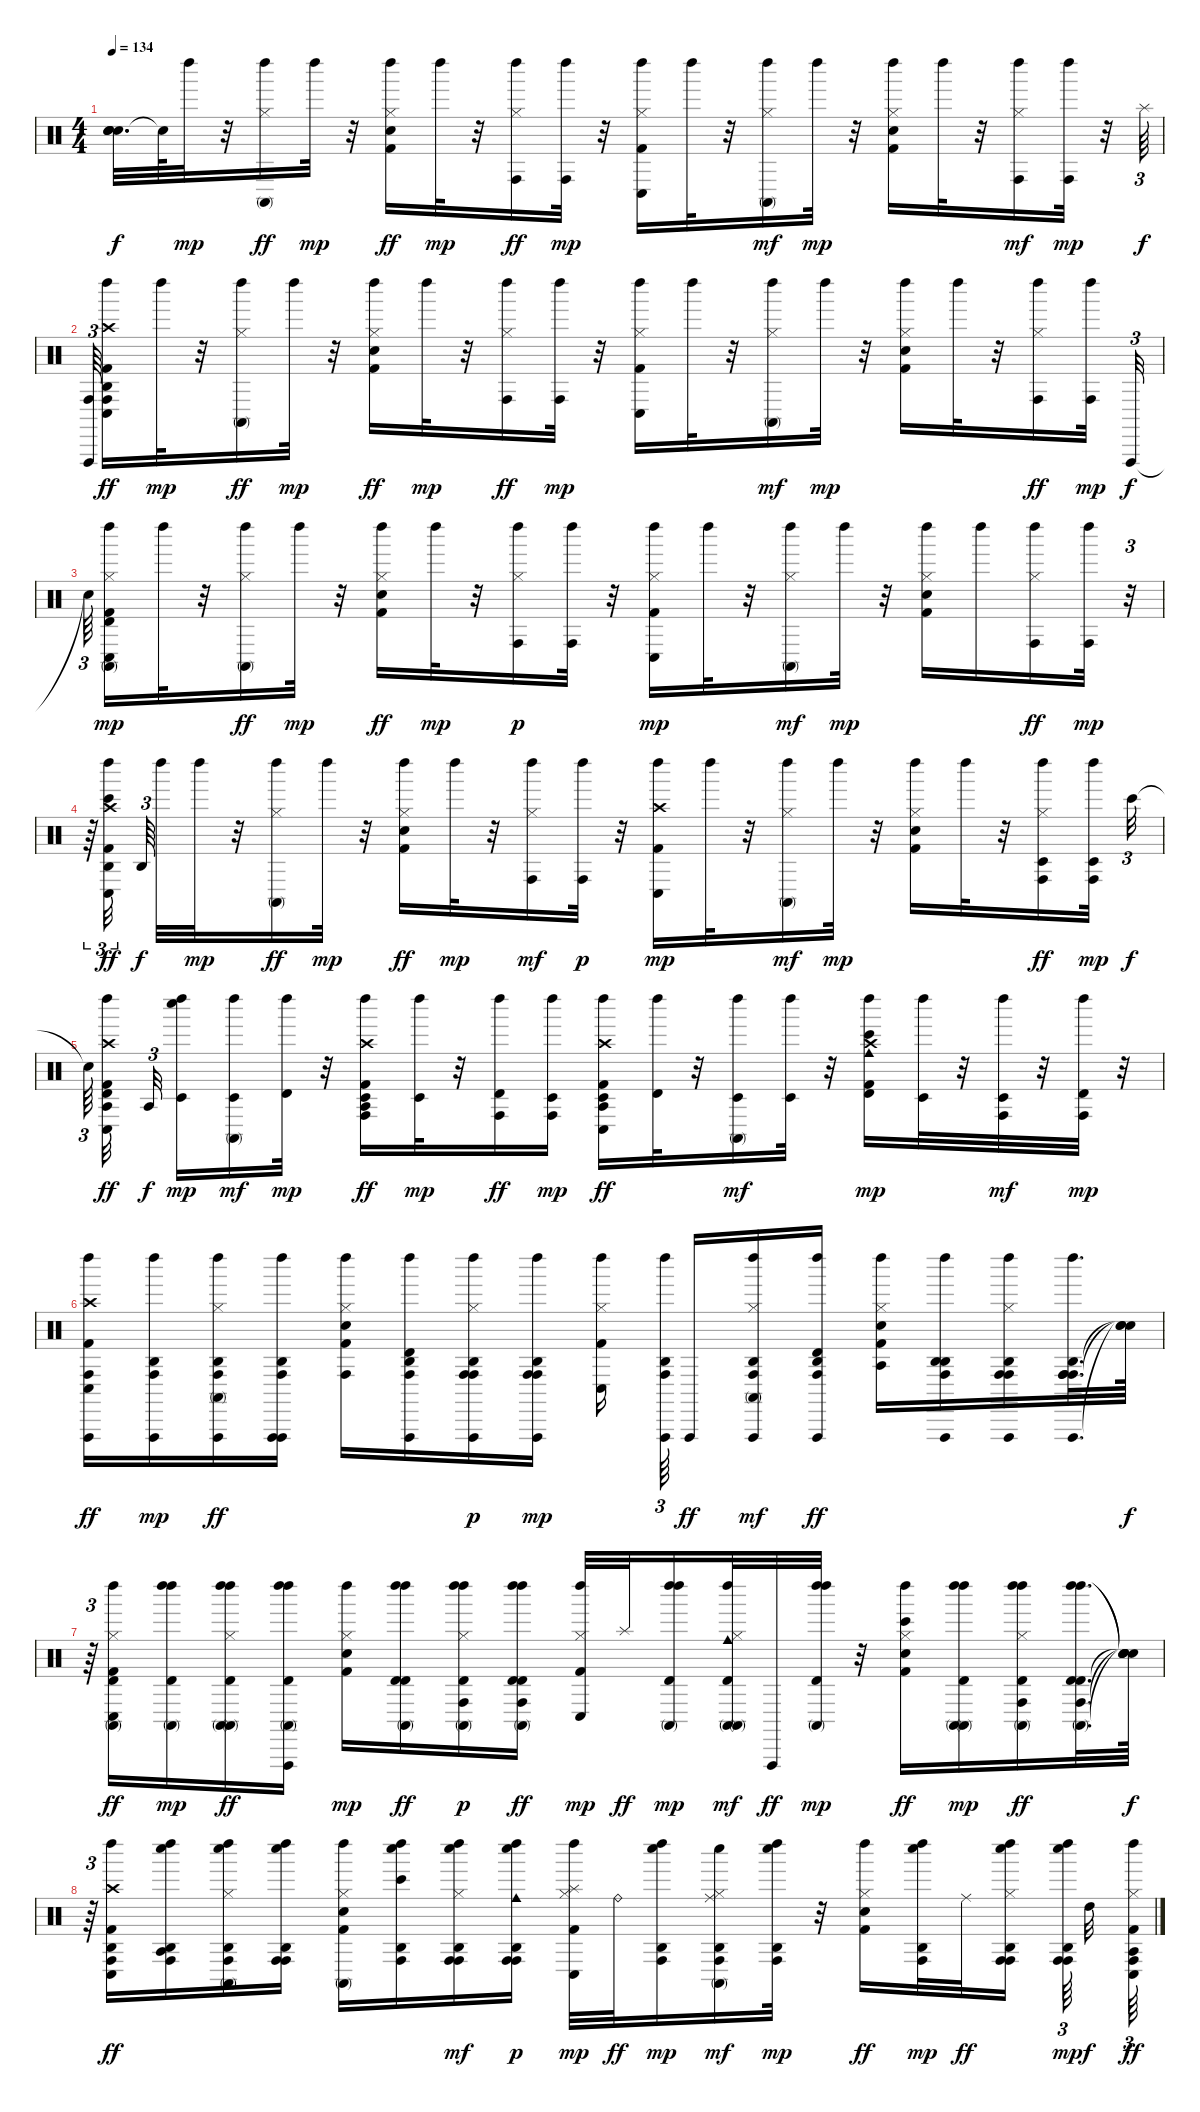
\track "" {instrument percussion}
\staff {score}
\articulation defaults
\ts (4 4)
\tempo 134
\clef neutral
\ks c
("Snare (hit)"{t} "Snare (hit)"{t} "Snare (hit)"{t} "Snare (hit)"{t}).32{d dy f} "Snare (hit)"{t}.64 "Left Maraca (hit)".32{dy mp} r.32 ("Left Maraca (hit)" "Conga high (mute)" "Hi-Hat (closed)").16{dy ff} "Left Maraca (hit)".32{dy mp} r.32 ("Left Maraca (hit)" "Hi-Hat (closed)" "Snare (hit) 2" "Kick (hit) 2").16{dy ff} "Left Maraca (hit)".32{dy mp} r.32 ("Left Maraca (hit)" "Conga high (hit)" "Hi-Hat (closed)").16{dy ff} ("Left Maraca (hit)" "Conga high (hit)").32{dy mp} r.32 ("Kick (hit) 2" "Hi-Hat (closed)" "Conga low (hit)" "Left Maraca (hit)").16 "Left Maraca (hit)".32 r.32 ("Hi-Hat (closed)" "Conga high (mute)" "Left Maraca (hit)").16{dy mf} "Left Maraca (hit)".32{dy mp} r.32 ("Kick (hit) 2" "Snare (hit) 2" "Hi-Hat (closed)" "Left Maraca (hit)").16 "Left Maraca (hit)".32 r.32 ("Hi-Hat (closed)" "Conga high (hit)" "Left Maraca (hit)").16{dy mf} ("Conga high (hit)" "Left Maraca (hit)").32{dy mp} r.32 "Splash (hit)".64{tu (3 2) dy f} |
("Conga high (hit)" "Vibraslap (hit)").64{tu (3 2) beam splitsecondary} ("Agogo high (hit)" "Left Maraca (hit)" "Conga low (hit)" "Crash high (hit)" "Kick (hit) 2" "Conga high (hit)").16{dy ff} "Left Maraca (hit)".32{dy mp} r.32 ("Left Maraca (hit)" "Conga high (mute)" "Hi-Hat (closed)").16{dy ff} "Left Maraca (hit)".32{dy mp} r.32 ("Left Maraca (hit)" "Hi-Hat (closed)" "Snare (hit) 2" "Kick (hit) 2").16{dy ff} "Left Maraca (hit)".32{dy mp} r.32 ("Left Maraca (hit)" "Conga high (hit)" "Hi-Hat (closed)").16{dy ff} ("Left Maraca (hit)" "Conga high (hit)").32{dy mp} r.32 ("Kick (hit) 2" "Hi-Hat (closed)" "Conga low (hit)" "Left Maraca (hit)").16 "Left Maraca (hit)".32 r.32 ("Hi-Hat (closed)" "Conga high (mute)" "Left Maraca (hit)").16{dy mf} "Left Maraca (hit)".32{dy mp} r.32 ("Kick (hit) 2" "Snare (hit) 2" "Hi-Hat (closed)" "Left Maraca (hit)").16 "Left Maraca (hit)".32 r.32 ("Left Maraca (hit)" "Conga high (hit)" "Hi-Hat (closed)").16{dy ff} ("Conga high (hit)" "Left Maraca (hit)").32{dy mp} "Vibraslap (hit)".32{tu (3 2) dy f} |
"Snare (hit)"{t}.64{tu (3 2) beam splitsecondary} ("Conga high (mute)" "Left Maraca (hit)" "Conga low (hit)" "Hi-Hat (closed)" "Kick (hit) 2" "Timbale high (hit)").16{dy mp} "Left Maraca (hit)".32 r.32 ("Left Maraca (hit)" "Conga high (mute)" "Hi-Hat (closed)").16{dy ff} "Left Maraca (hit)".32{dy mp} r.32 ("Left Maraca (hit)" "Hi-Hat (closed)" "Snare (hit) 2" "Kick (hit) 2").16{dy ff} "Left Maraca (hit)".32{dy mp} r.32 ("Hi-Hat (closed)" "Conga high (hit)" "Left Maraca (hit)").16{dy p} ("Left Maraca (hit)" "Conga high (hit)").32 r.32 ("Kick (hit) 2" "Hi-Hat (closed)" "Conga low (hit)" "Left Maraca (hit)").16{dy mp} "Left Maraca (hit)".32 r.32 ("Hi-Hat (closed)" "Conga high (mute)" "Left Maraca (hit)").16{dy mf} "Left Maraca (hit)".32{dy mp} r.32 ("Kick (hit) 2" "Snare (hit) 2" "Hi-Hat (closed)" "Left Maraca (hit)").16 "Left Maraca (hit)".16 ("Left Maraca (hit)" "Conga high (hit)" "Hi-Hat (closed)").16{dy ff} ("Conga high (hit)" "Left Maraca (hit)").32{dy mp} r.32{tu (3 2)} |
r.64{tu (3 2)} ("Bongo High (hit)" "Left Maraca (hit)" "Conga low (hit)" "Crash high (hit)" "Kick (hit) 2" "Agogo high (hit)").32{tu (3 2) dy ff beam splitsecondary} "Agogo high (hit)".64{tu (3 2) dy f beam splitsecondary} "Left Maraca (hit)".32 "Left Maraca (hit)".32{dy mp} r.32 ("Left Maraca (hit)" "Conga high (mute)" "Hi-Hat (closed)").16{dy ff} "Left Maraca (hit)".32{dy mp} r.32 ("Left Maraca (hit)" "Hi-Hat (closed)" "Snare (hit) 2" "Kick (hit) 2").16{dy ff} "Left Maraca (hit)".32{dy mp} r.32 ("Hi-Hat (closed)" "Conga high (hit)" "Left Maraca (hit)").16{dy mf} ("Left Maraca (hit)" "Conga high (hit)").32{dy p} r.32 ("Kick (hit) 2" "Crash high (hit)" "Conga low (hit)" "Left Maraca (hit)").16{dy mp} "Left Maraca (hit)".32 r.32 ("Hi-Hat (closed)" "Conga high (mute)" "Left Maraca (hit)").16{dy mf} "Left Maraca (hit)".32{dy mp} r.32 ("Kick (hit) 2" "Snare (hit) 2" "Hi-Hat (closed)" "Left Maraca (hit)").16 "Left Maraca (hit)".32 r.32 ("Left Maraca (hit)" "Timbale low (hit)" "Conga high (hit)" "Hi-Hat (closed)").16{dy ff} ("Conga high (hit)" "Timbale low (hit)" "Left Maraca (hit)").32{dy mp} "Bongo High (hit)".32{tu (3 2) dy f} |
"Snare (hit)"{t}.64{tu (3 2) beam splitsecondary} ("Left Maraca (hit)" "Timbale high (hit)" "Conga low (hit)" "Crash high (hit)" "Kick (hit) 2" "Agogo tow (hit)").32{dy ff beam splitsecondary} "Agogo tow (hit)".32{tu (3 2) dy f beam splitsecondary} ("Whistle low (hit)" "Timbale low (hit)" "Left Maraca (hit)").16{dy mp} ("Left Maraca (hit)" "Timbale low (hit)" "Conga high (mute)").16{dy mf} ("Timbale high (hit)" "Left Maraca (hit)").32{dy mp} r.32 ("Left Maraca (hit)" "Timbale low (hit)" "Crash high (hit)" "Kick (hit) 2" "Agogo tow (hit)" "Conga high (hit)").16{dy ff} ("Left Maraca (hit)" "Timbale low (hit)").32{dy mp} r.32 ("Conga high (hit)" "Timbale high (hit)" "Left Maraca (hit)").16{dy ff} ("Left Maraca (hit)" "Timbale low (hit)" "Conga high (hit)").16{dy mp} ("Kick (hit) 2" "Crash high (hit)" "Conga low (hit)" "Timbale low (hit)" "Left Maraca (hit)" "Agogo tow (hit)").16{dy ff} ("Left Maraca (hit)" "Timbale high (hit)").32 r.32 ("Conga high (mute)" "Timbale low (hit)" "Left Maraca (hit)").16{dy mf} ("Left Maraca (hit)" "Timbale low (hit)").32 r.32 ("Kick (hit) 2" "Crash high (hit)" "Timbale high (hit)" "Left Maraca (hit)" "Cowbell medium (hit)" "Bongo High (hit)").16{dy mp} ("Timbale low (hit)" "Left Maraca (hit)").32 r.32 ("Left Maraca (hit)" "Timbale low (hit)" "Conga high (hit)").32{dy mf} r.32 ("Conga high (hit)" "Timbale high (hit)" "Left Maraca (hit)").32{dy mp} r.32 |
("Left Maraca (hit)" "Conga low (hit)" "Crash high (hit)" "Kick (hit) 2" "Conga high (hit)" "Vibraslap (hit)").16{dy ff} ("Agogo high (hit)" "Conga high (hit)" "Vibraslap (hit)" "Left Maraca (hit)").16{dy mp} ("Agogo high (hit)" "Conga high (hit)" "Vibraslap (hit)" "Left Maraca (hit)" "Conga high (mute)" "Hi-Hat (closed)").16{dy ff} ("Agogo high (hit)" "Conga high (hit)" "Vibraslap (hit)" "Left Maraca (hit)" "Vibraslap (hit)").16 ("Kick (hit) 2" "Snare (hit) 2" "Hi-Hat (closed)" "Left Maraca (hit)" "Conga high (hit)").16 ("Agogo high (hit)" "Conga high (hit)" "Vibraslap (hit)" "Left Maraca (hit)" "Timbale high (hit)").16 ("Agogo high (hit)" "Conga high (hit)" "Vibraslap (hit)" "Hi-Hat (closed)" "Conga high (hit)" "Left Maraca (hit)").16{dy p} ("Agogo high (hit)" "Conga high (hit)" "Vibraslap (hit)" "Left Maraca (hit)" "Conga high (hit)").16{dy mp} ("Kick (hit) 2" "Hi-Hat (closed)" "Conga low (hit)" "Left Maraca (hit)").16{beam splitsecondary} ("Agogo high (hit)" "Conga high (hit)" "Vibraslap (hit)" "Left Maraca (hit)").64{tu (3 2) beam splitsecondary} "Vibraslap (hit)".16{dy ff} ("Agogo high (hit)" "Conga high (hit)" "Vibraslap (hit)" "Hi-Hat (closed)" "Conga high (mute)" "Left Maraca (hit)").16{dy mf} ("Agogo high (hit)" "Conga high (hit)" "Vibraslap (hit)" "Left Maraca (hit)" "Timbale high (hit)").16{dy ff} ("Left Maraca (hit)" "Hi-Hat (closed)" "Snare (hit) 2" "Kick (hit) 2" "Agogo tow (hit)").16 ("Agogo high (hit)" "Conga high (hit)" "Vibraslap (hit)" "Left Maraca (hit)" "Agogo high (hit)").16 ("Agogo high (hit)" "Conga high (hit)" "Vibraslap (hit)" "Left Maraca (hit)" "Conga high (hit)" "Hi-Hat (closed)").16 ("Agogo high (hit)" "Conga high (hit)" "Vibraslap (hit)" "Conga high (hit)" "Left Maraca (hit)" "Conga high (hit)").32{d} ("Snare (hit)"{t} "Snare (hit)"{t} "Snare (hit)"{t}).64{dy f} |
r.64{tu (3 2)} ("Left Maraca (hit)" "Conga low (hit)" "Hi-Hat (closed)" "Kick (hit) 2" "Timbale high (hit)" "Conga high (mute)").16{dy ff} ("Left Maraca (hit)" "Timbale high (hit)" "Conga high (mute)" "Left Maraca (hit)").16{dy mp} ("Left Maraca (hit)" "Timbale high (hit)" "Conga high (mute)" "Left Maraca (hit)" "Conga high (mute)" "Hi-Hat (closed)").16{dy ff} ("Conga high (mute)" "Timbale high (hit)" "Left Maraca (hit)" "Left Maraca (hit)" "Vibraslap (hit)").16 ("Kick (hit) 2" "Snare (hit) 2" "Hi-Hat (closed)" "Left Maraca (hit)").16{dy mp} ("Left Maraca (hit)" "Timbale high (hit)" "Conga high (mute)" "Left Maraca (hit)" "Timbale high (hit)").16{dy ff} ("Left Maraca (hit)" "Timbale high (hit)" "Conga high (mute)" "Hi-Hat (closed)" "Conga high (hit)" "Left Maraca (hit)").16{dy p} ("Left Maraca (hit)" "Timbale high (hit)" "Conga high (mute)" "Left Maraca (hit)" "Conga high (hit)" "Timbale high (hit)").16{dy ff} ("Kick (hit) 2" "Hi-Hat (closed)" "Conga low (hit)" "Left Maraca (hit)").32{dy mp} "Splash (hit)".32{dy ff} ("Left Maraca (hit)" "Timbale high (hit)" "Conga high (mute)" "Left Maraca (hit)").16{dy mp} ("Cowbell medium (hit)" "Left Maraca (hit)" "Timbale high (hit)" "Conga high (mute)" "Hi-Hat (closed)" "Conga high (mute)").32{dy mf} "Vibraslap (hit)".32{dy ff} ("Left Maraca (hit)" "Timbale high (hit)" "Conga high (mute)" "Left Maraca (hit)").32{dy mp} r.32 ("Bongo High (hit)" "Left Maraca (hit)" "Hi-Hat (closed)" "Snare (hit) 2" "Kick (hit) 2").16{dy ff} ("Conga high (mute)" "Left Maraca (hit)" "Timbale high (hit)" "Conga high (mute)" "Left Maraca (hit)").16{dy mp} ("Left Maraca (hit)" "Timbale high (hit)" "Conga high (mute)" "Left Maraca (hit)" "Conga high (hit)" "Hi-Hat (closed)").16{dy ff} ("Left Maraca (hit)" "Timbale high (hit)" "Conga high (mute)" "Conga high (hit)" "Left Maraca (hit)" "Timbale high (hit)").32{d} ("Snare (hit)"{t} "Snare (hit)"{t} "Snare (hit)"{t} "Snare (hit)"{t} "Snare (hit)"{t}).64{dy f} |
r.64{tu (3 2)} ("Left Maraca (hit)" "Conga low (hit)" "Crash high (hit)" "Kick (hit) 2" "Agogo high (hit)" "Conga high (hit)").16{dy ff} ("Whistle low (hit)" "Agogo high (hit)" "Conga high (hit)" "Left Maraca (hit)" "Agogo tow (hit)").16 ("Whistle low (hit)" "Agogo high (hit)" "Conga high (hit)" "Left Maraca (hit)" "Conga high (mute)" "Hi-Hat (closed)").16 ("Whistle low (hit)" "Agogo high (hit)" "Conga high (hit)" "Left Maraca (hit)" "Conga high (hit)").16 ("Kick (hit) 2" "Snare (hit) 2" "Hi-Hat (closed)" "Left Maraca (hit)" "Conga high (mute)").16 ("Whistle low (hit)" "Agogo high (hit)" "Conga high (hit)" "Left Maraca (hit)" "Bongo High (hit)").16 ("Whistle low (hit)" "Agogo high (hit)" "Conga high (hit)" "Hi-Hat (closed)" "Conga high (hit)" "Left Maraca (hit)").16{dy mf} ("Cowbell medium (hit)" "Whistle low (hit)" "Agogo high (hit)" "Conga high (hit)" "Left Maraca (hit)" "Conga high (hit)").16{dy p} ("Splash (hit)" "Kick (hit) 2" "Hi-Hat (closed)" "Conga low (hit)" "Left Maraca (hit)").32{dy mp} "Ride (bell)".32{dy ff} ("Whistle low (hit)" "Agogo high (hit)" "Conga high (hit)" "Left Maraca (hit)").16{dy mp} ("Ride (middle)" "Conga high (hit)" "Agogo high (hit)" "Whistle low (hit)" "Hi-Hat (closed)" "Conga high (mute)").16{dy mf} ("Whistle low (hit)" "Agogo high (hit)" "Conga high (hit)" "Left Maraca (hit)").32{dy mp} r.32 ("Left Maraca (hit)" "Hi-Hat (closed)" "Snare (hit) 2" "Kick (hit) 2").16{dy ff} ("Whistle low (hit)" "Agogo high (hit)" "Conga high (hit)" "Left Maraca (hit)").32{dy mp} "Ride (middle)".32{dy ff} ("Whistle low (hit)" "Agogo high (hit)" "Conga high (hit)" "Left Maraca (hit)" "Conga high (hit)" "Hi-Hat (closed)").16{beam splitsecondary} ("Whistle low (hit)" "Agogo high (hit)" "Conga high (hit)" "Conga high (hit)" "Left Maraca (hit)").64{tu (3 2) dy mp beam splitsecondary} "High Tom (hit)".32{dy f} ("Left Maraca (hit)" "Conga low (hit)" "Hi-Hat (closed)" "Kick (hit) 2" "Agogo tow (hit)" "Conga high (hit)").64{tu (3 2) dy ff}
